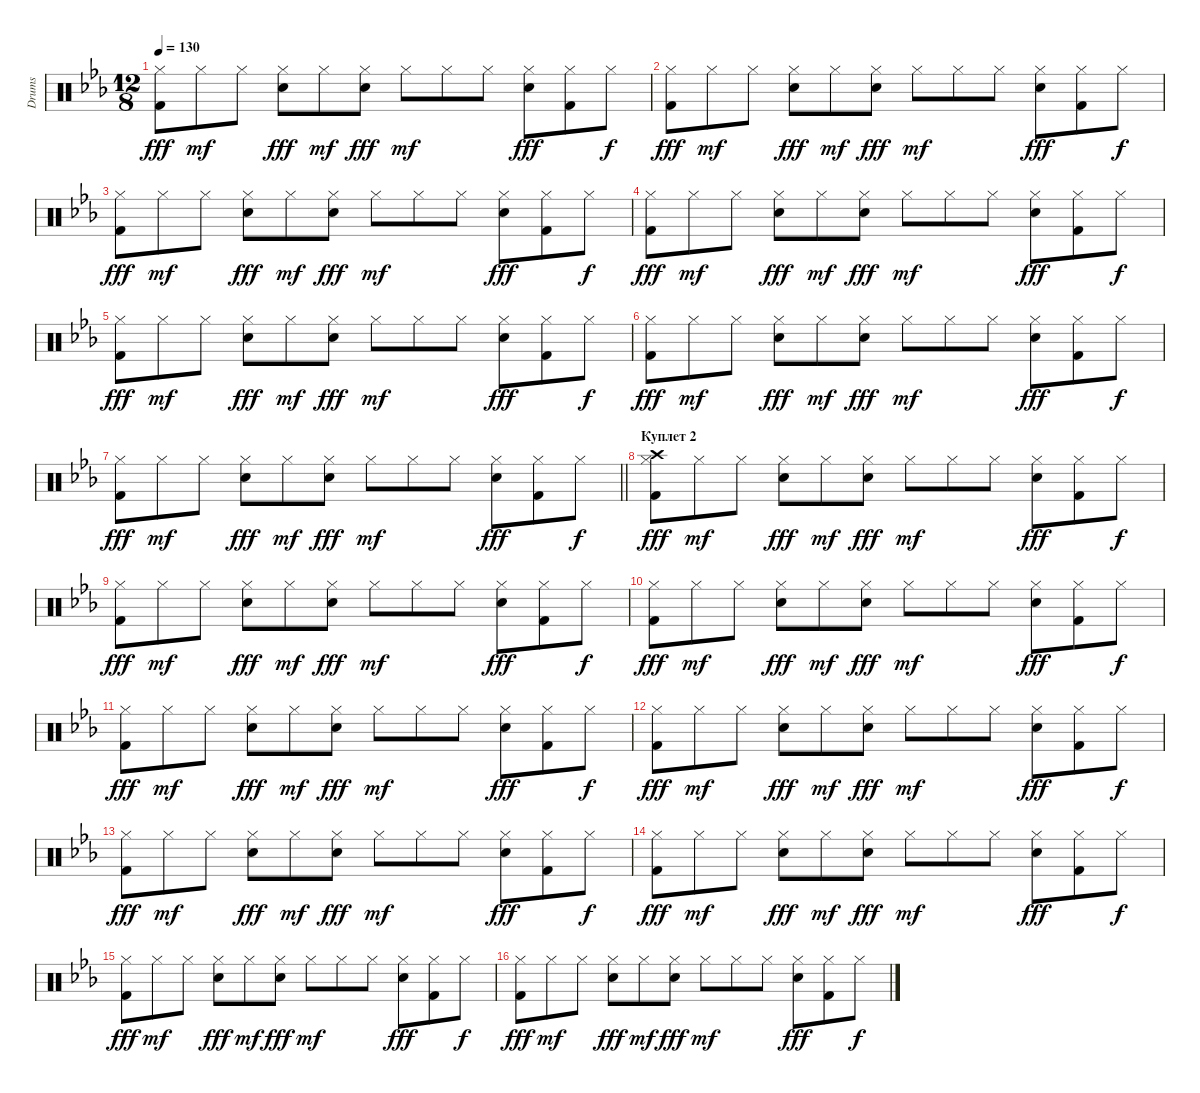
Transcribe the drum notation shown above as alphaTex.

\track ("Drums" "Drums") {instrument percussion}
\staff {score}
\articulation defaults
\ts (12 8)
\tempo 130
\clef neutral
\ks cminor
("Hi-Hat (closed)" "Kick (hit) 2").8{dy fff} "Hi-Hat (closed)".8{dy mf} "Hi-Hat (closed)".8 ("Hi-Hat (closed)" "Electric Snare (hit)").8{dy fff} "Hi-Hat (closed)".8{dy mf} ("Hi-Hat (closed)" "Electric Snare (hit)").8{dy fff} "Hi-Hat (closed)".8{dy mf} "Hi-Hat (closed)".8 "Hi-Hat (closed)".8 ("Hi-Hat (closed)" "Electric Snare (hit)").8{dy fff} ("Hi-Hat (closed)" "Kick (hit) 2").8 "Hi-Hat (closed)".8{dy f} |
("Hi-Hat (closed)" "Kick (hit) 2").8{dy fff} "Hi-Hat (closed)".8{dy mf} "Hi-Hat (closed)".8 ("Hi-Hat (closed)" "Electric Snare (hit)").8{dy fff} "Hi-Hat (closed)".8{dy mf} ("Hi-Hat (closed)" "Electric Snare (hit)").8{dy fff} "Hi-Hat (closed)".8{dy mf} "Hi-Hat (closed)".8 "Hi-Hat (closed)".8 ("Hi-Hat (closed)" "Electric Snare (hit)").8{dy fff} ("Hi-Hat (closed)" "Kick (hit) 2").8 "Hi-Hat (closed)".8{dy f} |
("Hi-Hat (closed)" "Kick (hit) 2").8{dy fff} "Hi-Hat (closed)".8{dy mf} "Hi-Hat (closed)".8 ("Hi-Hat (closed)" "Electric Snare (hit)").8{dy fff} "Hi-Hat (closed)".8{dy mf} ("Hi-Hat (closed)" "Electric Snare (hit)").8{dy fff} "Hi-Hat (closed)".8{dy mf} "Hi-Hat (closed)".8 "Hi-Hat (closed)".8 ("Hi-Hat (closed)" "Electric Snare (hit)").8{dy fff} ("Hi-Hat (closed)" "Kick (hit) 2").8 "Hi-Hat (closed)".8{dy f} |
("Hi-Hat (closed)" "Kick (hit) 2").8{dy fff} "Hi-Hat (closed)".8{dy mf} "Hi-Hat (closed)".8 ("Hi-Hat (closed)" "Electric Snare (hit)").8{dy fff} "Hi-Hat (closed)".8{dy mf} ("Hi-Hat (closed)" "Electric Snare (hit)").8{dy fff} "Hi-Hat (closed)".8{dy mf} "Hi-Hat (closed)".8 "Hi-Hat (closed)".8 ("Hi-Hat (closed)" "Electric Snare (hit)").8{dy fff} ("Hi-Hat (closed)" "Kick (hit) 2").8 "Hi-Hat (closed)".8{dy f} |
("Hi-Hat (closed)" "Kick (hit) 2").8{dy fff} "Hi-Hat (closed)".8{dy mf} "Hi-Hat (closed)".8 ("Hi-Hat (closed)" "Electric Snare (hit)").8{dy fff} "Hi-Hat (closed)".8{dy mf} ("Hi-Hat (closed)" "Electric Snare (hit)").8{dy fff} "Hi-Hat (closed)".8{dy mf} "Hi-Hat (closed)".8 "Hi-Hat (closed)".8 ("Hi-Hat (closed)" "Electric Snare (hit)").8{dy fff} ("Hi-Hat (closed)" "Kick (hit) 2").8 "Hi-Hat (closed)".8{dy f} |
("Hi-Hat (closed)" "Kick (hit) 2").8{dy fff} "Hi-Hat (closed)".8{dy mf} "Hi-Hat (closed)".8 ("Hi-Hat (closed)" "Electric Snare (hit)").8{dy fff} "Hi-Hat (closed)".8{dy mf} ("Hi-Hat (closed)" "Electric Snare (hit)").8{dy fff} "Hi-Hat (closed)".8{dy mf} "Hi-Hat (closed)".8 "Hi-Hat (closed)".8 ("Hi-Hat (closed)" "Electric Snare (hit)").8{dy fff} ("Hi-Hat (closed)" "Kick (hit) 2").8 "Hi-Hat (closed)".8{dy f} |
\barLineRight lightlight
("Hi-Hat (closed)" "Kick (hit) 2").8{dy fff} "Hi-Hat (closed)".8{dy mf} "Hi-Hat (closed)".8 ("Hi-Hat (closed)" "Electric Snare (hit)").8{dy fff} "Hi-Hat (closed)".8{dy mf} ("Hi-Hat (closed)" "Electric Snare (hit)").8{dy fff} "Hi-Hat (closed)".8{dy mf} "Hi-Hat (closed)".8 "Hi-Hat (closed)".8 ("Hi-Hat (closed)" "Electric Snare (hit)").8{dy fff} ("Hi-Hat (closed)" "Kick (hit) 2").8 "Hi-Hat (closed)".8{dy f} |
\section ("" "Куплет 2")
("Crash high (hit)" "Hi-Hat (closed)" "Kick (hit) 2").8{dy fff} "Hi-Hat (closed)".8{dy mf} "Hi-Hat (closed)".8 ("Hi-Hat (closed)" "Electric Snare (hit)").8{dy fff} "Hi-Hat (closed)".8{dy mf} ("Hi-Hat (closed)" "Electric Snare (hit)").8{dy fff} "Hi-Hat (closed)".8{dy mf} "Hi-Hat (closed)".8 "Hi-Hat (closed)".8 ("Hi-Hat (closed)" "Electric Snare (hit)").8{dy fff} ("Hi-Hat (closed)" "Kick (hit) 2").8 "Hi-Hat (closed)".8{dy f} |
("Hi-Hat (closed)" "Kick (hit) 2").8{dy fff} "Hi-Hat (closed)".8{dy mf} "Hi-Hat (closed)".8 ("Hi-Hat (closed)" "Electric Snare (hit)").8{dy fff} "Hi-Hat (closed)".8{dy mf} ("Hi-Hat (closed)" "Electric Snare (hit)").8{dy fff} "Hi-Hat (closed)".8{dy mf} "Hi-Hat (closed)".8 "Hi-Hat (closed)".8 ("Hi-Hat (closed)" "Electric Snare (hit)").8{dy fff} ("Hi-Hat (closed)" "Kick (hit) 2").8 "Hi-Hat (closed)".8{dy f} |
("Hi-Hat (closed)" "Kick (hit) 2").8{dy fff} "Hi-Hat (closed)".8{dy mf} "Hi-Hat (closed)".8 ("Hi-Hat (closed)" "Electric Snare (hit)").8{dy fff} "Hi-Hat (closed)".8{dy mf} ("Hi-Hat (closed)" "Electric Snare (hit)").8{dy fff} "Hi-Hat (closed)".8{dy mf} "Hi-Hat (closed)".8 "Hi-Hat (closed)".8 ("Hi-Hat (closed)" "Electric Snare (hit)").8{dy fff} ("Hi-Hat (closed)" "Kick (hit) 2").8 "Hi-Hat (closed)".8{dy f} |
("Hi-Hat (closed)" "Kick (hit) 2").8{dy fff} "Hi-Hat (closed)".8{dy mf} "Hi-Hat (closed)".8 ("Hi-Hat (closed)" "Electric Snare (hit)").8{dy fff} "Hi-Hat (closed)".8{dy mf} ("Hi-Hat (closed)" "Electric Snare (hit)").8{dy fff} "Hi-Hat (closed)".8{dy mf} "Hi-Hat (closed)".8 "Hi-Hat (closed)".8 ("Hi-Hat (closed)" "Electric Snare (hit)").8{dy fff} ("Hi-Hat (closed)" "Kick (hit) 2").8 "Hi-Hat (closed)".8{dy f} |
("Hi-Hat (closed)" "Kick (hit) 2").8{dy fff} "Hi-Hat (closed)".8{dy mf} "Hi-Hat (closed)".8 ("Hi-Hat (closed)" "Electric Snare (hit)").8{dy fff} "Hi-Hat (closed)".8{dy mf} ("Hi-Hat (closed)" "Electric Snare (hit)").8{dy fff} "Hi-Hat (closed)".8{dy mf} "Hi-Hat (closed)".8 "Hi-Hat (closed)".8 ("Hi-Hat (closed)" "Electric Snare (hit)").8{dy fff} ("Hi-Hat (closed)" "Kick (hit) 2").8 "Hi-Hat (closed)".8{dy f} |
("Hi-Hat (closed)" "Kick (hit) 2").8{dy fff} "Hi-Hat (closed)".8{dy mf} "Hi-Hat (closed)".8 ("Hi-Hat (closed)" "Electric Snare (hit)").8{dy fff} "Hi-Hat (closed)".8{dy mf} ("Hi-Hat (closed)" "Electric Snare (hit)").8{dy fff} "Hi-Hat (closed)".8{dy mf} "Hi-Hat (closed)".8 "Hi-Hat (closed)".8 ("Hi-Hat (closed)" "Electric Snare (hit)").8{dy fff} ("Hi-Hat (closed)" "Kick (hit) 2").8 "Hi-Hat (closed)".8{dy f} |
("Hi-Hat (closed)" "Kick (hit) 2").8{dy fff} "Hi-Hat (closed)".8{dy mf} "Hi-Hat (closed)".8 ("Hi-Hat (closed)" "Electric Snare (hit)").8{dy fff} "Hi-Hat (closed)".8{dy mf} ("Hi-Hat (closed)" "Electric Snare (hit)").8{dy fff} "Hi-Hat (closed)".8{dy mf} "Hi-Hat (closed)".8 "Hi-Hat (closed)".8 ("Hi-Hat (closed)" "Electric Snare (hit)").8{dy fff} ("Hi-Hat (closed)" "Kick (hit) 2").8 "Hi-Hat (closed)".8{dy f} |
("Hi-Hat (closed)" "Kick (hit) 2").8{dy fff} "Hi-Hat (closed)".8{dy mf} "Hi-Hat (closed)".8 ("Hi-Hat (closed)" "Electric Snare (hit)").8{dy fff} "Hi-Hat (closed)".8{dy mf} ("Hi-Hat (closed)" "Electric Snare (hit)").8{dy fff} "Hi-Hat (closed)".8{dy mf} "Hi-Hat (closed)".8 "Hi-Hat (closed)".8 ("Hi-Hat (closed)" "Electric Snare (hit)").8{dy fff} ("Hi-Hat (closed)" "Kick (hit) 2").8 "Hi-Hat (closed)".8{dy f} |
("Hi-Hat (closed)" "Kick (hit) 2").8{dy fff} "Hi-Hat (closed)".8{dy mf} "Hi-Hat (closed)".8 ("Hi-Hat (closed)" "Electric Snare (hit)").8{dy fff} "Hi-Hat (closed)".8{dy mf} ("Hi-Hat (closed)" "Electric Snare (hit)").8{dy fff} "Hi-Hat (closed)".8{dy mf} "Hi-Hat (closed)".8 "Hi-Hat (closed)".8 ("Hi-Hat (closed)" "Electric Snare (hit)").8{dy fff} ("Hi-Hat (closed)" "Kick (hit) 2").8 "Hi-Hat (closed)".8{dy f}
